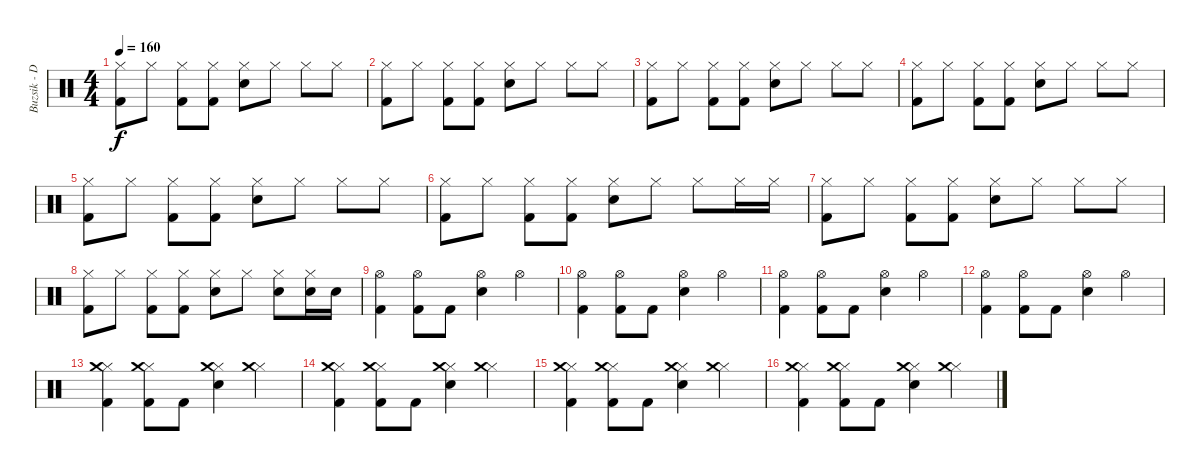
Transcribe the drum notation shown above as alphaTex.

\track ("Buzsik - Dob" "Buzsik - D") {instrument percussion}
\staff {score}
\articulation defaults
\ts (4 4)
\tempo 160
\clef neutral
\ks c
("Hi-Hat (closed)" "Kick (hit) 2").8{dy f} "Hi-Hat (closed)".8 ("Hi-Hat (closed)" "Kick (hit) 2").8 ("Hi-Hat (closed)" "Kick (hit) 2").8 ("Hi-Hat (closed)" "Electric Snare (hit)").8 "Hi-Hat (closed)".8 "Hi-Hat (closed)".8 "Hi-Hat (closed)".8 |
("Hi-Hat (closed)" "Kick (hit) 2").8 "Hi-Hat (closed)".8 ("Hi-Hat (closed)" "Kick (hit) 2").8 ("Hi-Hat (closed)" "Kick (hit) 2").8 ("Hi-Hat (closed)" "Electric Snare (hit)").8 "Hi-Hat (closed)".8 "Hi-Hat (closed)".8 "Hi-Hat (closed)".8 |
("Hi-Hat (closed)" "Kick (hit) 2").8 "Hi-Hat (closed)".8 ("Hi-Hat (closed)" "Kick (hit) 2").8 ("Hi-Hat (closed)" "Kick (hit) 2").8 ("Hi-Hat (closed)" "Electric Snare (hit)").8 "Hi-Hat (closed)".8 "Hi-Hat (closed)".8 "Hi-Hat (closed)".8 |
("Hi-Hat (closed)" "Kick (hit) 2").8 "Hi-Hat (closed)".8 ("Hi-Hat (closed)" "Kick (hit) 2").8 ("Hi-Hat (closed)" "Kick (hit) 2").8 ("Hi-Hat (closed)" "Electric Snare (hit)").8 "Hi-Hat (closed)".8 "Hi-Hat (closed)".8 "Hi-Hat (closed)".8 |
("Hi-Hat (closed)" "Kick (hit) 2").8 "Hi-Hat (closed)".8 ("Hi-Hat (closed)" "Kick (hit) 2").8 ("Hi-Hat (closed)" "Kick (hit) 2").8 ("Hi-Hat (closed)" "Electric Snare (hit)").8 "Hi-Hat (closed)".8 "Hi-Hat (closed)".8 "Hi-Hat (closed)".8 |
("Hi-Hat (closed)" "Kick (hit) 2").8 "Hi-Hat (closed)".8 ("Hi-Hat (closed)" "Kick (hit) 2").8 ("Hi-Hat (closed)" "Kick (hit) 2").8 ("Hi-Hat (closed)" "Electric Snare (hit)").8 "Hi-Hat (closed)".8 "Hi-Hat (closed)".8 "Hi-Hat (closed)".16 "Hi-Hat (closed)".16 |
("Hi-Hat (closed)" "Kick (hit) 2").8 "Hi-Hat (closed)".8 ("Hi-Hat (closed)" "Kick (hit) 2").8 ("Hi-Hat (closed)" "Kick (hit) 2").8 ("Hi-Hat (closed)" "Electric Snare (hit)").8 "Hi-Hat (closed)".8 "Hi-Hat (closed)".8 "Hi-Hat (closed)".8 |
("Hi-Hat (closed)" "Kick (hit) 2").8 "Hi-Hat (closed)".8 ("Hi-Hat (closed)" "Kick (hit) 2").8 ("Hi-Hat (closed)" "Kick (hit) 2").8 ("Hi-Hat (closed)" "Electric Snare (hit)").8 "Hi-Hat (closed)".8 ("Hi-Hat (closed)" "Electric Snare (hit)").8 ("Hi-Hat (closed)" "Electric Snare (hit)").16 "Electric Snare (hit)".16 |
("Hi-Hat (open)" "Kick (hit) 2").4 ("Hi-Hat (open)" "Kick (hit) 2").8 "Kick (hit) 2".8 ("Hi-Hat (open)" "Electric Snare (hit)").4 "Hi-Hat (open)".4 |
("Hi-Hat (open)" "Kick (hit) 2").4 ("Hi-Hat (open)" "Kick (hit) 2").8 "Kick (hit) 2".8 ("Hi-Hat (open)" "Electric Snare (hit)").4 "Hi-Hat (open)".4 |
("Hi-Hat (open)" "Kick (hit) 2").4 ("Hi-Hat (open)" "Kick (hit) 2").8 "Kick (hit) 2".8 ("Hi-Hat (open)" "Electric Snare (hit)").4 "Hi-Hat (open)".4 |
("Hi-Hat (open)" "Kick (hit) 2").4 ("Hi-Hat (open)" "Kick (hit) 2").8 "Kick (hit) 2".8 ("Hi-Hat (open)" "Electric Snare (hit)").4 "Hi-Hat (open)".4 |
("Hi-Hat (closed)" "Crash medium (hit)" "Kick (hit) 2").4 ("Hi-Hat (closed)" "Crash medium (hit)" "Kick (hit) 2").8 "Kick (hit) 2".8 ("Hi-Hat (closed)" "Crash medium (hit)" "Electric Snare (hit)").4 ("Hi-Hat (closed)" "Crash medium (hit)").4 |
("Hi-Hat (closed)" "Crash medium (hit)" "Kick (hit) 2").4 ("Hi-Hat (closed)" "Crash medium (hit)" "Kick (hit) 2").8 "Kick (hit) 2".8 ("Hi-Hat (closed)" "Crash medium (hit)" "Electric Snare (hit)").4 ("Hi-Hat (closed)" "Crash medium (hit)").4 |
("Hi-Hat (closed)" "Crash medium (hit)" "Kick (hit) 2").4 ("Hi-Hat (closed)" "Crash medium (hit)" "Kick (hit) 2").8 "Kick (hit) 2".8 ("Hi-Hat (closed)" "Crash medium (hit)" "Electric Snare (hit)").4 ("Hi-Hat (closed)" "Crash medium (hit)").4 |
("Hi-Hat (closed)" "Crash medium (hit)" "Kick (hit) 2").4 ("Hi-Hat (closed)" "Crash medium (hit)" "Kick (hit) 2").8 "Kick (hit) 2".8 ("Hi-Hat (closed)" "Crash medium (hit)" "Electric Snare (hit)").4 ("Hi-Hat (closed)" "Crash medium (hit)").4
